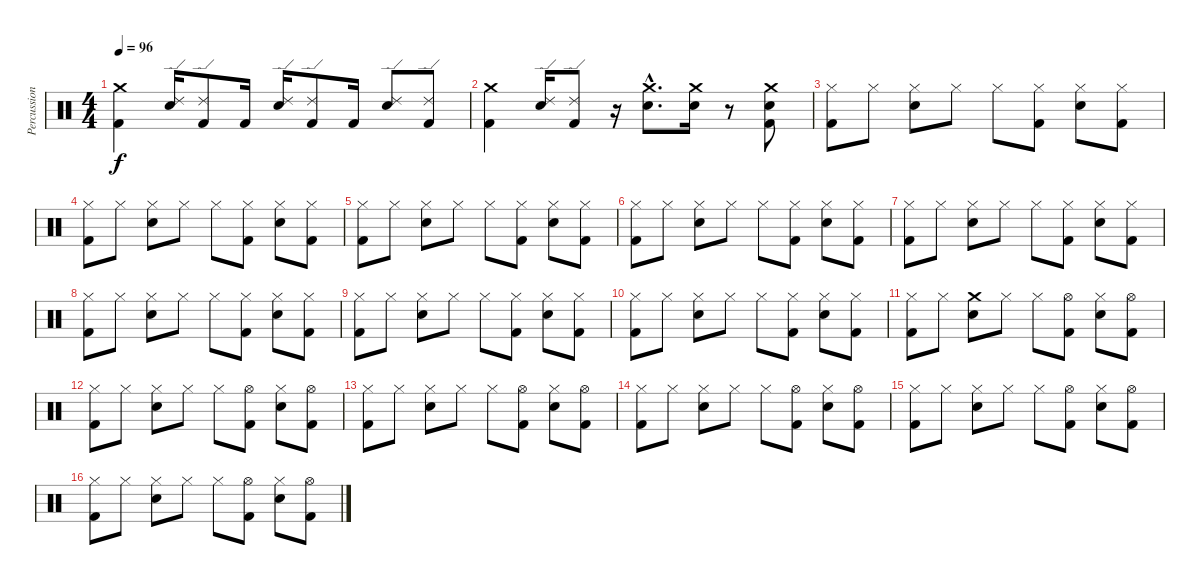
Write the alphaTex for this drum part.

\track ("Percussion" "Percussion") {instrument percussion}
\staff {score}
\articulation defaults
\ts (4 4)
\tempo 96
\clef neutral
\ks c
("Crash medium (hit)" "Kick (hit) 2").4{dy f} ("Ride (edge) 2" "Snare (hit) 2").16 ("Ride (edge) 2" "Kick (hit) 2").8 "Kick (hit) 2".16 ("Ride (edge) 2" "Snare (hit) 2").16 ("Ride (edge) 2" "Kick (hit) 2").8 "Kick (hit) 2".16 ("Ride (edge) 2" "Snare (hit) 2").8 ("Ride (edge) 2" "Kick (hit) 2").8 |
("Crash medium (hit)" "Kick (hit) 2").4 ("Ride (edge) 2" "Snare (hit) 2").16 ("Ride (edge) 2" "Kick (hit) 2").8 r.16 ("Crash medium (hit)"{hac} "Snare (hit) 2"{hac}).8{d} ("Crash medium (hit)" "Snare (hit) 2").16 r.8 ("Crash medium (hit)" "Snare (hit) 2" "Kick (hit) 2").8 |
("Hi-Hat (closed)" "Kick (hit) 2").8 "Hi-Hat (closed)".8 ("Hi-Hat (closed)" "Snare (hit) 2").8 "Hi-Hat (closed)".8 "Hi-Hat (closed)".8 ("Hi-Hat (closed)" "Kick (hit) 2").8 ("Hi-Hat (closed)" "Snare (hit) 2").8 ("Hi-Hat (closed)" "Kick (hit) 2").8 |
("Hi-Hat (closed)" "Kick (hit) 2").8 "Hi-Hat (closed)".8 ("Hi-Hat (closed)" "Snare (hit) 2").8 "Hi-Hat (closed)".8 "Hi-Hat (closed)".8 ("Hi-Hat (closed)" "Kick (hit) 2").8 ("Hi-Hat (closed)" "Snare (hit) 2").8 ("Hi-Hat (closed)" "Kick (hit) 2").8 |
("Hi-Hat (closed)" "Kick (hit) 2").8 "Hi-Hat (closed)".8 ("Hi-Hat (closed)" "Snare (hit) 2").8 "Hi-Hat (closed)".8 "Hi-Hat (closed)".8 ("Hi-Hat (closed)" "Kick (hit) 2").8 ("Hi-Hat (closed)" "Snare (hit) 2").8 ("Hi-Hat (closed)" "Kick (hit) 2").8 |
("Hi-Hat (closed)" "Kick (hit) 2").8 "Hi-Hat (closed)".8 ("Hi-Hat (closed)" "Snare (hit) 2").8 "Hi-Hat (closed)".8 "Hi-Hat (closed)".8 ("Hi-Hat (closed)" "Kick (hit) 2").8 ("Hi-Hat (closed)" "Snare (hit) 2").8 ("Hi-Hat (closed)" "Kick (hit) 2").8 |
("Hi-Hat (closed)" "Kick (hit) 2").8 "Hi-Hat (closed)".8 ("Hi-Hat (closed)" "Snare (hit) 2").8 "Hi-Hat (closed)".8 "Hi-Hat (closed)".8 ("Hi-Hat (closed)" "Kick (hit) 2").8 ("Hi-Hat (closed)" "Snare (hit) 2").8 ("Hi-Hat (closed)" "Kick (hit) 2").8 |
("Hi-Hat (closed)" "Kick (hit) 2").8 "Hi-Hat (closed)".8 ("Hi-Hat (closed)" "Snare (hit) 2").8 "Hi-Hat (closed)".8 "Hi-Hat (closed)".8 ("Hi-Hat (closed)" "Kick (hit) 2").8 ("Hi-Hat (closed)" "Snare (hit) 2").8 ("Hi-Hat (closed)" "Kick (hit) 2").8 |
("Hi-Hat (closed)" "Kick (hit) 2").8 "Hi-Hat (closed)".8 ("Hi-Hat (closed)" "Snare (hit) 2").8 "Hi-Hat (closed)".8 "Hi-Hat (closed)".8 ("Hi-Hat (closed)" "Kick (hit) 2").8 ("Hi-Hat (closed)" "Snare (hit) 2").8 ("Hi-Hat (closed)" "Kick (hit) 2").8 |
("Hi-Hat (closed)" "Kick (hit) 2").8 "Hi-Hat (closed)".8 ("Hi-Hat (closed)" "Snare (hit) 2").8 "Hi-Hat (closed)".8 "Hi-Hat (closed)".8 ("Hi-Hat (closed)" "Kick (hit) 2").8 ("Hi-Hat (closed)" "Snare (hit) 2").8 ("Hi-Hat (closed)" "Kick (hit) 2").8 |
("Hi-Hat (closed)" "Kick (hit) 2").8 "Hi-Hat (closed)".8 ("Crash medium (hit)" "Snare (hit) 2").8 "Hi-Hat (closed)".8 "Hi-Hat (closed)".8 ("Hi-Hat (open)" "Kick (hit) 2").8 ("Hi-Hat (closed)" "Snare (hit) 2").8 ("Hi-Hat (open)" "Kick (hit) 2").8 |
("Hi-Hat (closed)" "Kick (hit) 2").8 "Hi-Hat (closed)".8 ("Hi-Hat (closed)" "Snare (hit) 2").8 "Hi-Hat (closed)".8 "Hi-Hat (closed)".8 ("Hi-Hat (open)" "Kick (hit) 2").8 ("Hi-Hat (closed)" "Snare (hit) 2").8 ("Hi-Hat (open)" "Kick (hit) 2").8 |
("Hi-Hat (closed)" "Kick (hit) 2").8 "Hi-Hat (closed)".8 ("Hi-Hat (closed)" "Snare (hit) 2").8 "Hi-Hat (closed)".8 "Hi-Hat (closed)".8 ("Hi-Hat (open)" "Kick (hit) 2").8 ("Hi-Hat (closed)" "Snare (hit) 2").8 ("Hi-Hat (open)" "Kick (hit) 2").8 |
("Hi-Hat (closed)" "Kick (hit) 2").8 "Hi-Hat (closed)".8 ("Hi-Hat (closed)" "Snare (hit) 2").8 "Hi-Hat (closed)".8 "Hi-Hat (closed)".8 ("Hi-Hat (open)" "Kick (hit) 2").8 ("Hi-Hat (closed)" "Snare (hit) 2").8 ("Hi-Hat (open)" "Kick (hit) 2").8 |
("Hi-Hat (closed)" "Kick (hit) 2").8 "Hi-Hat (closed)".8 ("Hi-Hat (closed)" "Snare (hit) 2").8 "Hi-Hat (closed)".8 "Hi-Hat (closed)".8 ("Hi-Hat (open)" "Kick (hit) 2").8 ("Hi-Hat (closed)" "Snare (hit) 2").8 ("Hi-Hat (open)" "Kick (hit) 2").8 |
("Hi-Hat (closed)" "Kick (hit) 2").8 "Hi-Hat (closed)".8 ("Hi-Hat (closed)" "Snare (hit) 2").8 "Hi-Hat (closed)".8 "Hi-Hat (closed)".8 ("Hi-Hat (open)" "Kick (hit) 2").8 ("Hi-Hat (closed)" "Snare (hit) 2").8 ("Hi-Hat (open)" "Kick (hit) 2").8
